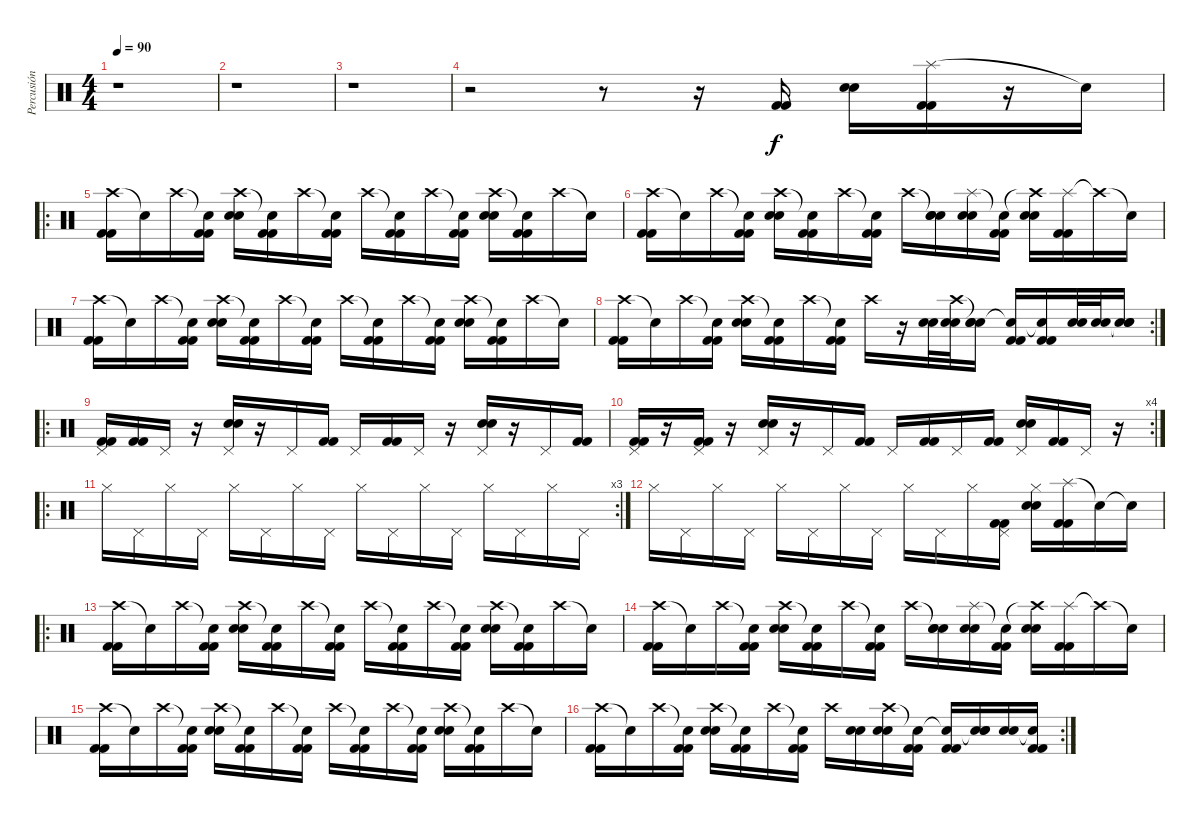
\track ("Percusión" "Percusión") {instrument percussion}
\staff {score}
\articulation defaults
\ts (4 4)
\tempo 90
\clef neutral
\ks c
r.1{dy f} |
r.1 |
r.1 |
r.2 r.8 r.16 ("Kick (hit) 2" "Kick (hit) 2").16 ("Electric Snare (hit)" "Electric Snare (hit)").16 ("Splash (hit)" "Kick (hit) 2" "Kick (hit) 2").16 r.16 "Snare (hit)"{t}.16 |
\ro
("Crash high (hit)" "Kick (hit) 2" "Kick (hit) 2").16 "Snare (hit)"{t}.16 "Crash high (hit)".16 ("Snare (hit)"{t} "Kick (hit) 2" "Kick (hit) 2").16 ("Crash high (hit)" "Electric Snare (hit)" "Electric Snare (hit)").16 ("Snare (hit)"{t} "Kick (hit) 2" "Kick (hit) 2").16 "Crash high (hit)".16 ("Snare (hit)"{t} "Kick (hit) 2" "Kick (hit) 2").16 "Crash high (hit)".16 ("Snare (hit)"{t} "Kick (hit) 2" "Kick (hit) 2").16 "Crash high (hit)".16 ("Snare (hit)"{t} "Kick (hit) 2" "Kick (hit) 2").16 ("Crash high (hit)" "Electric Snare (hit)" "Electric Snare (hit)").16 ("Snare (hit)"{t} "Kick (hit) 2" "Kick (hit) 2").16 "Crash high (hit)".16 "Snare (hit)"{t}.16 |
("Crash high (hit)" "Kick (hit) 2" "Kick (hit) 2").16 "Snare (hit)"{t}.16 "Crash high (hit)".16 ("Snare (hit)"{t} "Kick (hit) 2" "Kick (hit) 2").16 ("Crash high (hit)" "Electric Snare (hit)" "Electric Snare (hit)").16 ("Snare (hit)"{t} "Kick (hit) 2" "Kick (hit) 2").16 "Crash high (hit)".16 ("Snare (hit)"{t} "Kick (hit) 2" "Kick (hit) 2").16 "Crash high (hit)".16 ("Snare (hit)"{t} "Electric Snare (hit)" "Electric Snare (hit)").16 ("Splash (hit)" "Electric Snare (hit)" "Electric Snare (hit)").16 ("Snare (hit)"{t} "Kick (hit) 2" "Kick (hit) 2").16 ("Crash high (hit)"{t} "Electric Snare (hit)" "Electric Snare (hit)").16 ("Splash (hit)" "Kick (hit) 2" "Kick (hit) 2").16 "Crash high (hit)"{t}.16 "Snare (hit)"{t}.16 |
("Crash high (hit)" "Kick (hit) 2" "Kick (hit) 2").16 "Snare (hit)"{t}.16 "Crash high (hit)".16 ("Snare (hit)"{t} "Kick (hit) 2" "Kick (hit) 2").16 ("Crash high (hit)" "Electric Snare (hit)" "Electric Snare (hit)").16 ("Snare (hit)"{t} "Kick (hit) 2" "Kick (hit) 2").16 "Crash high (hit)".16 ("Snare (hit)"{t} "Kick (hit) 2" "Kick (hit) 2").16 "Crash high (hit)".16 ("Snare (hit)"{t} "Kick (hit) 2" "Kick (hit) 2").16 "Crash high (hit)".16 ("Snare (hit)"{t} "Kick (hit) 2" "Kick (hit) 2").16 ("Crash high (hit)" "Electric Snare (hit)" "Electric Snare (hit)").16 ("Snare (hit)"{t} "Kick (hit) 2" "Kick (hit) 2").16 "Crash high (hit)".16 "Snare (hit)"{t}.16 |
\rc 2
("Crash high (hit)" "Kick (hit) 2" "Kick (hit) 2").16 "Snare (hit)"{t}.16 "Crash high (hit)".16 ("Snare (hit)"{t} "Kick (hit) 2" "Kick (hit) 2").16 ("Crash high (hit)" "Electric Snare (hit)" "Electric Snare (hit)").16 ("Snare (hit)"{t} "Kick (hit) 2" "Kick (hit) 2").16 "Crash high (hit)".16 ("Snare (hit)"{t} "Kick (hit) 2" "Kick (hit) 2").16 "Crash high (hit)".16 r.16 ("Electric Snare (hit)" "Electric Snare (hit)").32 ("Crash high (hit)" "Electric Snare (hit)" "Electric Snare (hit)").32 ("Snare (hit)"{t} "Electric Snare (hit)" "Electric Snare (hit)").16 ("Snare (hit)"{t} "Kick (hit) 2" "Kick (hit) 2").16 ("Snare (hit)"{t} "Kick (hit) 2" "Kick (hit) 2").16 ("Electric Snare (hit)" "Electric Snare (hit)").32 ("Electric Snare (hit)" "Electric Snare (hit)").32 ("Snare (hit)"{t} "Electric Snare (hit)" "Electric Snare (hit)").16 |
\ro
("Pedal Hi-Hat (hit)" "Kick (hit) 2" "Kick (hit) 2").16 ("Kick (hit) 2" "Kick (hit) 2").16 "Pedal Hi-Hat (hit)".16 r.16 ("Pedal Hi-Hat (hit)" "Electric Snare (hit)" "Electric Snare (hit)").16 r.16 "Pedal Hi-Hat (hit)".16 ("Kick (hit) 2" "Kick (hit) 2").16 "Pedal Hi-Hat (hit)".16 ("Kick (hit) 2" "Kick (hit) 2").16 "Pedal Hi-Hat (hit)".16 r.16 ("Pedal Hi-Hat (hit)" "Electric Snare (hit)" "Electric Snare (hit)").16 r.16 "Pedal Hi-Hat (hit)".16 ("Kick (hit) 2" "Kick (hit) 2").16 |
\rc 4
("Pedal Hi-Hat (hit)" "Kick (hit) 2" "Kick (hit) 2").16 r.16 ("Pedal Hi-Hat (hit)" "Kick (hit) 2" "Kick (hit) 2").16 r.16 ("Pedal Hi-Hat (hit)" "Electric Snare (hit)" "Electric Snare (hit)").16 r.16 "Pedal Hi-Hat (hit)".16 ("Kick (hit) 2" "Kick (hit) 2").16 "Pedal Hi-Hat (hit)".16 ("Kick (hit) 2" "Kick (hit) 2").16 "Pedal Hi-Hat (hit)".16 ("Kick (hit) 2" "Kick (hit) 2").16 ("Pedal Hi-Hat (hit)" "Electric Snare (hit)" "Electric Snare (hit)").16 ("Kick (hit) 2" "Kick (hit) 2").16 "Pedal Hi-Hat (hit)".16 r.16 |
\ro
\rc 3 "Hi-Hat (closed)".16 "Pedal Hi-Hat (hit)".16 "Hi-Hat (closed)".16 "Pedal Hi-Hat (hit)".16 "Hi-Hat (closed)".16 "Pedal Hi-Hat (hit)".16 "Hi-Hat (closed)".16 "Pedal Hi-Hat (hit)".16 "Hi-Hat (closed)".16 "Pedal Hi-Hat (hit)".16 "Hi-Hat (closed)".16 "Pedal Hi-Hat (hit)".16 "Hi-Hat (closed)".16 "Pedal Hi-Hat (hit)".16 "Hi-Hat (closed)".16 "Pedal Hi-Hat (hit)".16
|
"Hi-Hat (closed)".16 "Pedal Hi-Hat (hit)".16 "Hi-Hat (closed)".16 "Pedal Hi-Hat (hit)".16 "Hi-Hat (closed)".16 "Pedal Hi-Hat (hit)".16 "Hi-Hat (closed)".16 "Pedal Hi-Hat (hit)".16 "Hi-Hat (closed)".16 "Pedal Hi-Hat (hit)".16 "Hi-Hat (closed)".16 ("Pedal Hi-Hat (hit)" "Kick (hit) 2" "Kick (hit) 2").16 ("Hi-Hat (closed)" "Electric Snare (hit)" "Electric Snare (hit)").16 ("Splash (hit)" "Kick (hit) 2" "Kick (hit) 2").16 "Snare (hit)"{t}.16 "Snare (hit)"{t}.16 |
\ro
("Crash high (hit)" "Kick (hit) 2" "Kick (hit) 2").16 "Snare (hit)"{t}.16 "Crash high (hit)".16 ("Snare (hit)"{t} "Kick (hit) 2" "Kick (hit) 2").16 ("Crash high (hit)" "Electric Snare (hit)" "Electric Snare (hit)").16 ("Snare (hit)"{t} "Kick (hit) 2" "Kick (hit) 2").16 "Crash high (hit)".16 ("Snare (hit)"{t} "Kick (hit) 2" "Kick (hit) 2").16 "Crash high (hit)".16 ("Snare (hit)"{t} "Kick (hit) 2" "Kick (hit) 2").16 "Crash high (hit)".16 ("Snare (hit)"{t} "Kick (hit) 2" "Kick (hit) 2").16 ("Crash high (hit)" "Electric Snare (hit)" "Electric Snare (hit)").16 ("Snare (hit)"{t} "Kick (hit) 2" "Kick (hit) 2").16 "Crash high (hit)".16 "Snare (hit)"{t}.16 |
("Crash high (hit)" "Kick (hit) 2" "Kick (hit) 2").16 "Snare (hit)"{t}.16 "Crash high (hit)".16 ("Snare (hit)"{t} "Kick (hit) 2" "Kick (hit) 2").16 ("Crash high (hit)" "Electric Snare (hit)" "Electric Snare (hit)").16 ("Snare (hit)"{t} "Kick (hit) 2" "Kick (hit) 2").16 "Crash high (hit)".16 ("Snare (hit)"{t} "Kick (hit) 2" "Kick (hit) 2").16 "Crash high (hit)".16 ("Snare (hit)"{t} "Electric Snare (hit)" "Electric Snare (hit)").16 ("Splash (hit)" "Electric Snare (hit)" "Electric Snare (hit)").16 ("Snare (hit)"{t} "Kick (hit) 2" "Kick (hit) 2").16 ("Crash high (hit)"{t} "Electric Snare (hit)" "Electric Snare (hit)").16 ("Splash (hit)" "Kick (hit) 2" "Kick (hit) 2").16 "Crash high (hit)"{t}.16 "Snare (hit)"{t}.16 |
("Crash high (hit)" "Kick (hit) 2" "Kick (hit) 2").16 "Snare (hit)"{t}.16 "Crash high (hit)".16 ("Snare (hit)"{t} "Kick (hit) 2" "Kick (hit) 2").16 ("Crash high (hit)" "Electric Snare (hit)" "Electric Snare (hit)").16 ("Snare (hit)"{t} "Kick (hit) 2" "Kick (hit) 2").16 "Crash high (hit)".16 ("Snare (hit)"{t} "Kick (hit) 2" "Kick (hit) 2").16 "Crash high (hit)".16 ("Snare (hit)"{t} "Kick (hit) 2" "Kick (hit) 2").16 "Crash high (hit)".16 ("Snare (hit)"{t} "Kick (hit) 2" "Kick (hit) 2").16 ("Crash high (hit)" "Electric Snare (hit)" "Electric Snare (hit)").16 ("Snare (hit)"{t} "Kick (hit) 2" "Kick (hit) 2").16 "Crash high (hit)".16 "Snare (hit)"{t}.16 |
\rc 2
("Crash high (hit)" "Kick (hit) 2" "Kick (hit) 2").16 "Snare (hit)"{t}.16 "Crash high (hit)".16 ("Snare (hit)"{t} "Kick (hit) 2" "Kick (hit) 2").16 ("Crash high (hit)" "Electric Snare (hit)" "Electric Snare (hit)").16 ("Snare (hit)"{t} "Kick (hit) 2" "Kick (hit) 2").16 "Crash high (hit)".16 ("Snare (hit)"{t} "Kick (hit) 2" "Kick (hit) 2").16 "Crash high (hit)".16 ("Electric Snare (hit)" "Electric Snare (hit)").16 ("Crash high (hit)" "Electric Snare (hit)" "Electric Snare (hit)").16 ("Snare (hit)"{t} "Kick (hit) 2" "Kick (hit) 2").16 ("Snare (hit)"{t} "Kick (hit) 2" "Kick (hit) 2").16 ("Snare (hit)"{t} "Electric Snare (hit)" "Electric Snare (hit)").16 ("Electric Snare (hit)" "Electric Snare (hit)").16 ("Snare (hit)"{t} "Kick (hit) 2" "Kick (hit) 2").16
